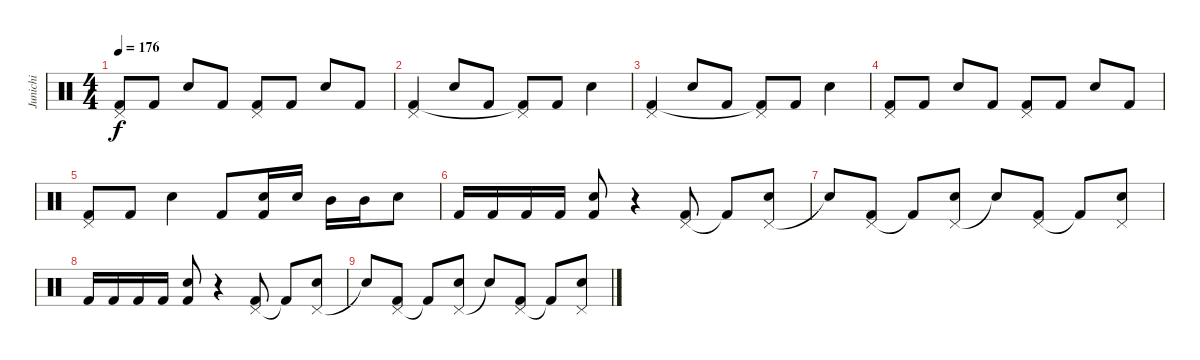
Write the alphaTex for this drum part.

\track ("Junichi" "Junichi") {instrument percussion}
\staff {score}
\articulation defaults
\ts (4 4)
\tempo 176
\clef neutral
\ks c
("Pedal Hi-Hat (hit)" "Kick (hit) 2").8{dy f} "Kick (hit) 2".8 "Snare (hit) 2".8 "Kick (hit) 2".8 ("Pedal Hi-Hat (hit)" "Kick (hit) 2").8 "Kick (hit) 2".8 "Snare (hit) 2".8 "Kick (hit) 2".8 |
("Pedal Hi-Hat (hit)" "Kick (hit) 2").4 "Snare (hit) 2".8 "Kick (hit) 2".8 ("Pedal Hi-Hat (hit)" "Kick (hit) 2"{t}).8 "Kick (hit) 2".8 "Snare (hit) 2".4 |
("Pedal Hi-Hat (hit)" "Kick (hit) 2").4 "Snare (hit) 2".8 "Kick (hit) 2".8 ("Pedal Hi-Hat (hit)" "Kick (hit) 2"{t}).8 "Kick (hit) 2".8 "Snare (hit) 2".4 |
("Pedal Hi-Hat (hit)" "Kick (hit) 2").8 "Kick (hit) 2".8 "Snare (hit) 2".8 "Kick (hit) 2".8 ("Pedal Hi-Hat (hit)" "Kick (hit) 2").8 "Kick (hit) 2".8 "Snare (hit) 2".8 "Kick (hit) 2".8 |
("Pedal Hi-Hat (hit)" "Kick (hit) 2").8 "Kick (hit) 2".8 "Snare (hit) 2".4 "Kick (hit) 2".8 ("Snare (hit) 2" "Kick (hit) 2").16 "Snare (hit) 2".16 "Mid Tom (hit)".16 "Mid Tom (hit)".16 "Snare (hit) 2".8 |
"Kick (hit) 2".16 "Kick (hit) 2".16 "Kick (hit) 2".16 "Kick (hit) 2".16 ("Snare (hit) 2" "Kick (hit) 2").8 r.4 ("Pedal Hi-Hat (hit)" "Kick (hit) 2").8 "Kick (hit) 2"{t}.8 ("Pedal Hi-Hat (hit)" "Snare (hit) 2").8 |
"Snare (hit) 2"{t}.8 ("Pedal Hi-Hat (hit)" "Kick (hit) 2").8 "Kick (hit) 2"{t}.8 ("Pedal Hi-Hat (hit)" "Snare (hit) 2").8 "Snare (hit) 2"{t}.8 ("Pedal Hi-Hat (hit)" "Kick (hit) 2").8 "Kick (hit) 2"{t}.8 ("Pedal Hi-Hat (hit)" "Snare (hit) 2").8 |
"Kick (hit) 2".16 "Kick (hit) 2".16 "Kick (hit) 2".16 "Kick (hit) 2".16 ("Snare (hit) 2" "Kick (hit) 2").8 r.4 ("Pedal Hi-Hat (hit)" "Kick (hit) 2").8 "Kick (hit) 2"{t}.8 ("Pedal Hi-Hat (hit)" "Snare (hit) 2").8 |
"Snare (hit) 2"{t}.8 ("Pedal Hi-Hat (hit)" "Kick (hit) 2").8 "Kick (hit) 2"{t}.8 ("Pedal Hi-Hat (hit)" "Snare (hit) 2").8 "Snare (hit) 2"{t}.8 ("Pedal Hi-Hat (hit)" "Kick (hit) 2").8 "Kick (hit) 2"{t}.8 ("Pedal Hi-Hat (hit)" "Snare (hit) 2").8
